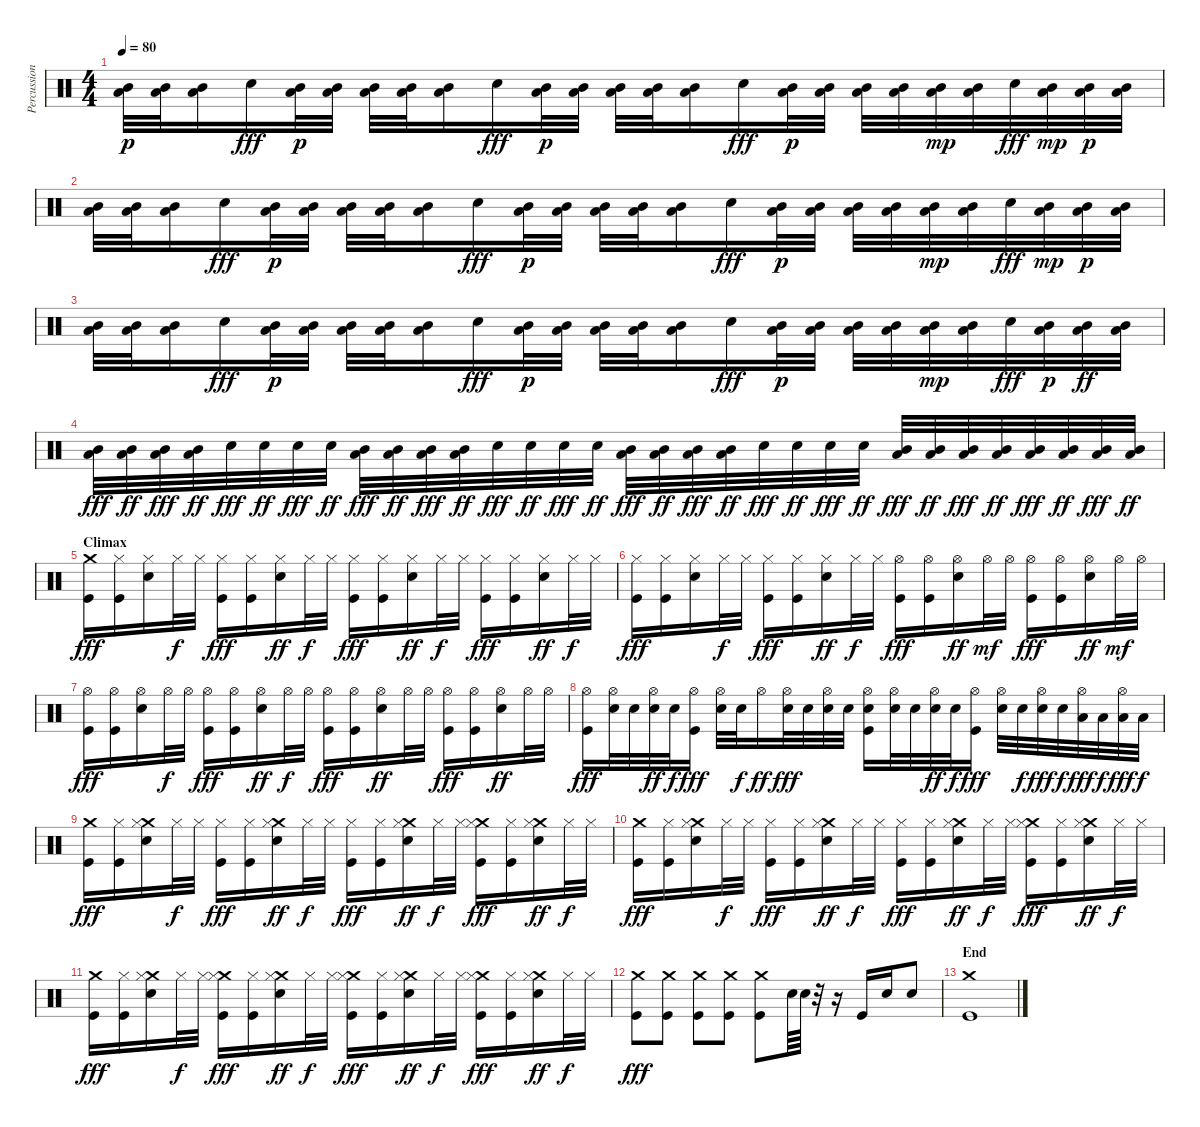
\track ("Percussion" "Percussion") {instrument percussion}
\staff {score}
\articulation defaults
\ts (4 4)
\tempo 80
\clef neutral
\ks c
("Mid Tom (hit)" "Low Tom (hit)").32{dy p} ("Mid Tom (hit)" "Low Tom (hit)").32 ("Mid Tom (hit)" "Low Tom (hit)").16 "Snare (hit) 2".16{dy fff} ("Mid Tom (hit)" "Low Tom (hit)").32{dy p} ("Mid Tom (hit)" "Low Tom (hit)").32 ("Mid Tom (hit)" "Low Tom (hit)").32 ("Mid Tom (hit)" "Low Tom (hit)").32 ("Mid Tom (hit)" "Low Tom (hit)").16 "Snare (hit) 2".16{dy fff} ("Mid Tom (hit)" "Low Tom (hit)").32{dy p} ("Mid Tom (hit)" "Low Tom (hit)").32 ("Mid Tom (hit)" "Low Tom (hit)").32 ("Mid Tom (hit)" "Low Tom (hit)").32 ("Mid Tom (hit)" "Low Tom (hit)").16 "Snare (hit) 2".16{dy fff} ("Mid Tom (hit)" "Low Tom (hit)").32{dy p} ("Mid Tom (hit)" "Low Tom (hit)").32 ("Mid Tom (hit)" "Low Tom (hit)").32 ("Mid Tom (hit)" "Low Tom (hit)").32 ("Mid Tom (hit)" "Low Tom (hit)").32{dy mp} ("Mid Tom (hit)" "Low Tom (hit)").32 "Snare (hit) 2".32{dy fff} ("Mid Tom (hit)" "Low Tom (hit)").32{dy mp} ("Mid Tom (hit)" "Low Tom (hit)").32{dy p} ("Mid Tom (hit)" "Low Tom (hit)").32 |
("Mid Tom (hit)" "Low Tom (hit)").32 ("Mid Tom (hit)" "Low Tom (hit)").32 ("Mid Tom (hit)" "Low Tom (hit)").16 "Snare (hit) 2".16{dy fff} ("Mid Tom (hit)" "Low Tom (hit)").32{dy p} ("Mid Tom (hit)" "Low Tom (hit)").32 ("Mid Tom (hit)" "Low Tom (hit)").32 ("Mid Tom (hit)" "Low Tom (hit)").32 ("Mid Tom (hit)" "Low Tom (hit)").16 "Snare (hit) 2".16{dy fff} ("Mid Tom (hit)" "Low Tom (hit)").32{dy p} ("Mid Tom (hit)" "Low Tom (hit)").32 ("Mid Tom (hit)" "Low Tom (hit)").32 ("Mid Tom (hit)" "Low Tom (hit)").32 ("Mid Tom (hit)" "Low Tom (hit)").16 "Snare (hit) 2".16{dy fff} ("Mid Tom (hit)" "Low Tom (hit)").32{dy p} ("Mid Tom (hit)" "Low Tom (hit)").32 ("Mid Tom (hit)" "Low Tom (hit)").32 ("Mid Tom (hit)" "Low Tom (hit)").32 ("Mid Tom (hit)" "Low Tom (hit)").32{dy mp} ("Mid Tom (hit)" "Low Tom (hit)").32 "Snare (hit) 2".32{dy fff} ("Mid Tom (hit)" "Low Tom (hit)").32{dy mp} ("Mid Tom (hit)" "Low Tom (hit)").32{dy p} ("Mid Tom (hit)" "Low Tom (hit)").32 |
("Mid Tom (hit)" "Low Tom (hit)").32 ("Mid Tom (hit)" "Low Tom (hit)").32 ("Mid Tom (hit)" "Low Tom (hit)").16 "Snare (hit) 2".16{dy fff} ("Mid Tom (hit)" "Low Tom (hit)").32{dy p} ("Mid Tom (hit)" "Low Tom (hit)").32 ("Mid Tom (hit)" "Low Tom (hit)").32 ("Mid Tom (hit)" "Low Tom (hit)").32 ("Mid Tom (hit)" "Low Tom (hit)").16 "Snare (hit) 2".16{dy fff} ("Mid Tom (hit)" "Low Tom (hit)").32{dy p} ("Mid Tom (hit)" "Low Tom (hit)").32 ("Mid Tom (hit)" "Low Tom (hit)").32 ("Mid Tom (hit)" "Low Tom (hit)").32 ("Mid Tom (hit)" "Low Tom (hit)").16 "Snare (hit) 2".16{dy fff} ("Mid Tom (hit)" "Low Tom (hit)").32{dy p} ("Mid Tom (hit)" "Low Tom (hit)").32 ("Mid Tom (hit)" "Low Tom (hit)").32 ("Mid Tom (hit)" "Low Tom (hit)").32 ("Mid Tom (hit)" "Low Tom (hit)").32{dy mp} ("Mid Tom (hit)" "Low Tom (hit)").32 "Snare (hit) 2".32{dy fff} ("Mid Tom (hit)" "Low Tom (hit)").32{dy p} ("Mid Tom (hit)" "Low Tom (hit)").32{dy ff} ("Mid Tom (hit)" "Low Tom (hit)").32 |
("Mid Tom (hit)" "Low Tom (hit)").32{dy fff} ("Mid Tom (hit)" "Low Tom (hit)").32{dy ff} ("Mid Tom (hit)" "Low Tom (hit)").32{dy fff} ("Mid Tom (hit)" "Low Tom (hit)").32{dy ff} "Snare (hit) 2".32{dy fff} "Snare (hit) 2".32{dy ff} "Snare (hit) 2".32{dy fff} "Snare (hit) 2".32{dy ff} ("Mid Tom (hit)" "Low Tom (hit)").32{dy fff} ("Mid Tom (hit)" "Low Tom (hit)").32{dy ff} ("Mid Tom (hit)" "Low Tom (hit)").32{dy fff} ("Mid Tom (hit)" "Low Tom (hit)").32{dy ff} "Snare (hit) 2".32{dy fff} "Snare (hit) 2".32{dy ff} "Snare (hit) 2".32{dy fff} "Snare (hit) 2".32{dy ff} ("Mid Tom (hit)" "Low Tom (hit)").32{dy fff} ("Mid Tom (hit)" "Low Tom (hit)").32{dy ff} ("Mid Tom (hit)" "Low Tom (hit)").32{dy fff} ("Mid Tom (hit)" "Low Tom (hit)").32{dy ff} "Snare (hit) 2".32{dy fff} "Snare (hit) 2".32{dy ff} "Snare (hit) 2".32{dy fff} "Snare (hit) 2".32{dy ff} ("Mid Tom (hit)" "Low Tom (hit)").32{dy fff} ("Mid Tom (hit)" "Low Tom (hit)").32{dy ff} ("Mid Tom (hit)" "Low Tom (hit)").32{dy fff} ("Mid Tom (hit)" "Low Tom (hit)").32{dy ff} ("Mid Tom (hit)" "Low Tom (hit)").32{dy fff} ("Mid Tom (hit)" "Low Tom (hit)").32{dy ff} ("Mid Tom (hit)" "Low Tom (hit)").32{dy fff} ("Mid Tom (hit)" "Low Tom (hit)").32{dy ff} |
\section ("" "Climax")
("Crash medium (hit)" "Kick (hit)").16{dy fff} ("Hi-Hat (closed)" "Kick (hit)").16 ("Hi-Hat (closed)" "Snare (hit) 2").16 "Hi-Hat (closed)".32{dy f} "Hi-Hat (closed)".32 ("Hi-Hat (closed)" "Kick (hit)").16{dy fff} ("Hi-Hat (closed)" "Kick (hit)").16 ("Hi-Hat (closed)" "Snare (hit) 2").16{dy ff} "Hi-Hat (closed)".32{dy f} "Hi-Hat (closed)".32 ("Hi-Hat (closed)" "Kick (hit)").16{dy fff} ("Hi-Hat (closed)" "Kick (hit)").16 ("Hi-Hat (closed)" "Snare (hit) 2").16{dy ff} "Hi-Hat (closed)".32{dy f} "Hi-Hat (closed)".32 ("Hi-Hat (closed)" "Kick (hit)").16{dy fff} ("Hi-Hat (closed)" "Kick (hit)").16 ("Hi-Hat (closed)" "Snare (hit) 2").16{dy ff} "Hi-Hat (closed)".32{dy f} "Hi-Hat (closed)".32 |
("Hi-Hat (closed)" "Kick (hit)").16{dy fff} ("Hi-Hat (closed)" "Kick (hit)").16 ("Hi-Hat (closed)" "Snare (hit) 2").16 "Hi-Hat (closed)".32{dy f} "Hi-Hat (closed)".32 ("Hi-Hat (closed)" "Kick (hit)").16{dy fff} ("Hi-Hat (closed)" "Kick (hit)").16 ("Hi-Hat (closed)" "Snare (hit) 2").16{dy ff} "Hi-Hat (closed)".32{dy f} "Hi-Hat (closed)".32 ("Hi-Hat (open)" "Kick (hit)").16{dy fff} ("Hi-Hat (open)" "Kick (hit)").16 ("Hi-Hat (open)" "Snare (hit) 2").16{dy ff} "Hi-Hat (open)".32{dy mf} "Hi-Hat (open)".32 ("Hi-Hat (open)" "Kick (hit)").16{dy fff} ("Hi-Hat (open)" "Kick (hit)").16 ("Hi-Hat (open)" "Snare (hit) 2").16{dy ff} "Hi-Hat (open)".32{dy mf} "Hi-Hat (open)".32 |
("Hi-Hat (open)" "Kick (hit)").16{dy fff} ("Hi-Hat (open)" "Kick (hit)").16 ("Hi-Hat (open)" "Snare (hit) 2").16 "Hi-Hat (open)".32{dy f} "Hi-Hat (open)".32 ("Hi-Hat (open)" "Kick (hit)").16{dy fff} ("Hi-Hat (open)" "Kick (hit)").16 ("Hi-Hat (open)" "Snare (hit) 2").16{dy ff} "Hi-Hat (open)".32{dy f} "Hi-Hat (open)".32 ("Hi-Hat (open)" "Kick (hit)").16{dy fff} ("Hi-Hat (open)" "Kick (hit)").16 ("Hi-Hat (open)" "Snare (hit) 2").16{dy ff} "Hi-Hat (open)".32 "Hi-Hat (open)".32 ("Hi-Hat (open)" "Kick (hit)").16{dy fff} ("Hi-Hat (open)" "Kick (hit)").16 ("Hi-Hat (open)" "Snare (hit) 2").16{dy ff} "Hi-Hat (open)".32 "Hi-Hat (open)".32 |
("Hi-Hat (open)" "Kick (hit)").16{dy fff} ("Hi-Hat (open)" "Snare (hit) 2").32 "Snare (hit) 2".32 ("Hi-Hat (open)" "Snare (hit) 2").32{dy ff} "Snare (hit) 2".32{dy f} ("Hi-Hat (open)" "Kick (hit)").16{dy fff} ("Hi-Hat (open)" "Snare (hit) 2").32 "Snare (hit) 2".32{dy f} "Hi-Hat (open)".16{dy ff} ("Hi-Hat (open)" "Snare (hit) 2").32{dy fff} "Snare (hit) 2".32 ("Hi-Hat (open)" "Snare (hit) 2").32 "Snare (hit) 2".32 ("Hi-Hat (open)" "Snare (hit) 2" "Kick (hit)").16 ("Hi-Hat (open)" "Snare (hit) 2").32 "Snare (hit) 2".32 ("Hi-Hat (open)" "Snare (hit) 2").32{dy ff} "Snare (hit) 2".32{dy f} ("Hi-Hat (open)" "Kick (hit)").16{dy fff} ("Hi-Hat (open)" "Snare (hit) 2").32 "Snare (hit) 2".32{dy f} ("Hi-Hat (open)" "Snare (hit) 2").32{dy fff} "Snare (hit) 2".32{dy f} ("Hi-Hat (open)" "Low Tom (hit)").32{dy fff} "Low Tom (hit)".32{dy f} ("Hi-Hat (open)" "Low Tom (hit)").32{dy fff} "Low Tom (hit)".32{dy f} |
("Crash medium (hit)" "Kick (hit)").16{dy fff} ("Hi-Hat (closed)" "Kick (hit)").16 ("Crash medium (hit)" "Hi-Hat (closed)" "Snare (hit) 2").16 "Hi-Hat (closed)".32{dy f} "Hi-Hat (closed)".32 ("Hi-Hat (closed)" "Kick (hit)").16{dy fff} ("Hi-Hat (closed)" "Kick (hit)").16 ("Crash medium (hit)" "Hi-Hat (closed)" "Snare (hit) 2").16{dy ff} "Hi-Hat (closed)".32{dy f} "Hi-Hat (closed)".32 ("Hi-Hat (closed)" "Kick (hit)").16{dy fff} ("Hi-Hat (closed)" "Kick (hit)").16 ("Crash medium (hit)" "Hi-Hat (closed)" "Snare (hit) 2").16{dy ff} "Hi-Hat (closed)".32{dy f} "Hi-Hat (closed)".32 ("Crash medium (hit)" "Hi-Hat (closed)" "Kick (hit)").16{dy fff} ("Hi-Hat (closed)" "Kick (hit)").16 ("Crash medium (hit)" "Hi-Hat (closed)" "Snare (hit) 2").16{dy ff} "Hi-Hat (closed)".32{dy f} "Hi-Hat (closed)".32 |
("Crash medium (hit)" "Kick (hit)").16{dy fff} ("Hi-Hat (closed)" "Kick (hit)").16 ("Crash medium (hit)" "Hi-Hat (closed)" "Snare (hit) 2").16 "Hi-Hat (closed)".32{dy f} "Hi-Hat (closed)".32 ("Hi-Hat (closed)" "Kick (hit)").16{dy fff} ("Hi-Hat (closed)" "Kick (hit)").16 ("Crash medium (hit)" "Hi-Hat (closed)" "Snare (hit) 2").16{dy ff} "Hi-Hat (closed)".32{dy f} "Hi-Hat (closed)".32 ("Hi-Hat (closed)" "Kick (hit)").16{dy fff} ("Hi-Hat (closed)" "Kick (hit)").16 ("Crash medium (hit)" "Hi-Hat (closed)" "Snare (hit) 2").16{dy ff} "Hi-Hat (closed)".32{dy f} "Hi-Hat (closed)".32 ("Crash medium (hit)" "Hi-Hat (closed)" "Kick (hit)").16{dy fff} ("Hi-Hat (closed)" "Kick (hit)").16 ("Crash medium (hit)" "Hi-Hat (closed)" "Snare (hit) 2").16{dy ff} "Hi-Hat (closed)".32{dy f} "Hi-Hat (closed)".32 |
("Crash medium (hit)" "Kick (hit)").16{dy fff} ("Hi-Hat (closed)" "Kick (hit)").16 ("Crash medium (hit)" "Hi-Hat (closed)" "Snare (hit) 2").16 "Hi-Hat (closed)".32{dy f} "Hi-Hat (closed)".32 ("Crash medium (hit)" "Hi-Hat (closed)" "Kick (hit)").16{dy fff} ("Hi-Hat (closed)" "Kick (hit)").16 ("Crash medium (hit)" "Hi-Hat (closed)" "Snare (hit) 2").16{dy ff} "Hi-Hat (closed)".32{dy f} "Hi-Hat (closed)".32 ("Crash medium (hit)" "Hi-Hat (closed)" "Kick (hit)").16{dy fff} ("Hi-Hat (closed)" "Kick (hit)").16 ("Crash medium (hit)" "Hi-Hat (closed)" "Snare (hit) 2").16{dy ff} "Hi-Hat (closed)".32{dy f} "Hi-Hat (closed)".32 ("Crash medium (hit)" "Hi-Hat (closed)" "Kick (hit)").16{dy fff} ("Hi-Hat (closed)" "Kick (hit)").16 ("Crash medium (hit)" "Hi-Hat (closed)" "Snare (hit) 2").16{dy ff} "Hi-Hat (closed)".32{dy f} "Hi-Hat (closed)".32 |
("Crash medium (hit)" "Kick (hit)").8{dy fff} ("Crash medium (hit)" "Kick (hit)").8 ("Crash medium (hit)" "Kick (hit)").8 ("Crash medium (hit)" "Kick (hit)").8 ("Crash medium (hit)" "Kick (hit)").8 "Snare (hit) 2".64 "Snare (hit) 2".64 r.32 r.16 "Kick (hit)".16 "Snare (hit) 2".16 "Snare (hit) 2".8 |
\section ("" "End")
("Crash medium (hit)" "Kick (hit)").1
